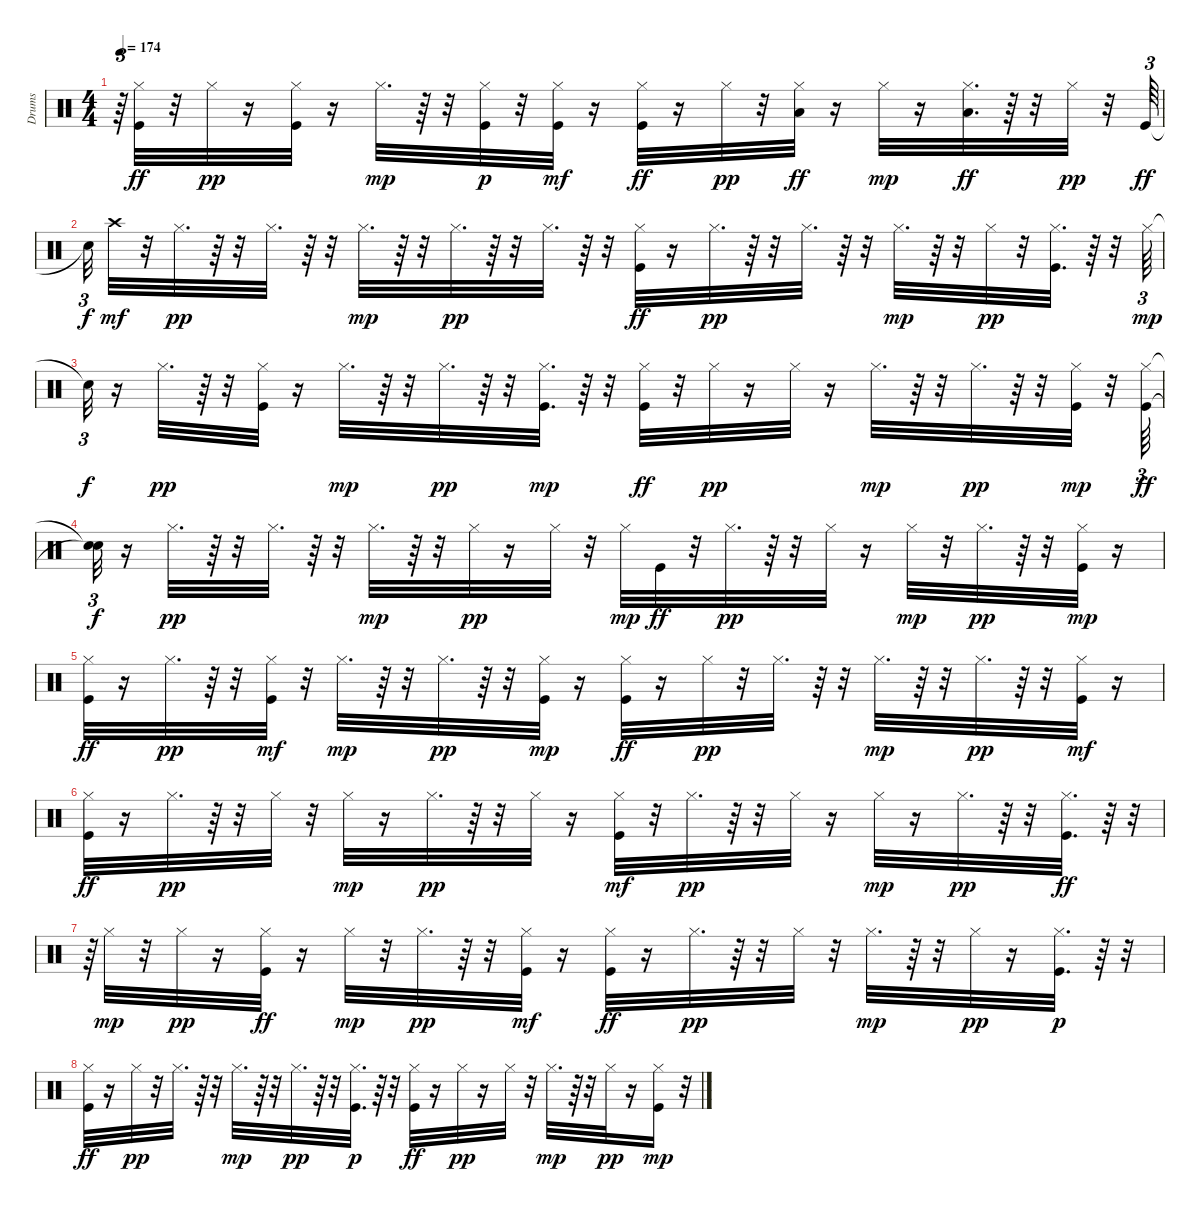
\track ("Drums" "Drums") {instrument percussion}
\staff {score}
\articulation defaults
\ts (4 4)
\tempo 174
\clef neutral
\ks c
r.64{tu (3 2) dy mp} ("Hi-Hat (closed)" "Kick (hit)").32{dy ff} r.32 "Hi-Hat (closed)".32{dy pp} r.16 ("Hi-Hat (closed)" "Kick (hit)").32 r.16 "Hi-Hat (closed)".32{d dy mp} r.64 r.32 ("Hi-Hat (closed)" "Kick (hit)").32{dy p} r.32 ("Hi-Hat (closed)" "Kick (hit)").32{dy mf} r.16 ("Hi-Hat (closed)" "Kick (hit)").32{dy ff} r.16 "Hi-Hat (closed)".32{dy pp} r.32 ("Hi-Hat (closed)" "Low Tom (hit)").32{dy ff} r.16 "Hi-Hat (closed)".32{dy mp} r.16 ("Hi-Hat (closed)" "Low Tom (hit)").32{d dy ff} r.64 r.32 "Hi-Hat (closed)".32{dy pp} r.32 "Kick (hit)".64{tu (3 2) dy ff} |
"Snare (hit)"{t}.32{tu (3 2) dy f} "Crash high (hit)".32{dy mf} r.32 "Hi-Hat (closed)".32{d dy pp} r.64 r.32 "Hi-Hat (closed)".32{d} r.64 r.32 "Hi-Hat (closed)".32{d dy mp} r.64 r.32 "Hi-Hat (closed)".32{d dy pp} r.64 r.32 "Hi-Hat (closed)".32{d} r.64 r.32 ("Hi-Hat (closed)" "Kick (hit)").32{dy ff} r.16 "Hi-Hat (closed)".32{d dy pp} r.64 r.32 "Hi-Hat (closed)".32{d} r.64 r.32 "Hi-Hat (closed)".32{d dy mp} r.64 r.32 "Hi-Hat (closed)".32{dy pp} r.32 ("Hi-Hat (closed)" "Kick (hit)").32{d} r.64 r.32 "Hi-Hat (closed)".64{tu (3 2) dy mp} |
"Snare (hit)"{t}.32{tu (3 2) dy f} r.16 "Hi-Hat (closed)".32{d dy pp} r.64 r.32 ("Hi-Hat (closed)" "Kick (hit)").32 r.16 "Hi-Hat (closed)".32{d dy mp} r.64 r.32 "Hi-Hat (closed)".32{d dy pp} r.64 r.32 ("Hi-Hat (closed)" "Kick (hit)").32{d dy mp} r.64 r.32 ("Hi-Hat (closed)" "Kick (hit)").32{dy ff} r.32 "Hi-Hat (closed)".32{dy pp} r.16 "Hi-Hat (closed)".32 r.16 "Hi-Hat (closed)".32{d dy mp} r.64 r.32 "Hi-Hat (closed)".32{d dy pp} r.64 r.32 ("Hi-Hat (closed)" "Kick (hit)").32{dy mp} r.32 ("Hi-Hat (closed)" "Kick (hit)").64{tu (3 2) dy ff} |
("Snare (hit)"{t} "Snare (hit)"{t}).32{tu (3 2) dy f} r.16 "Hi-Hat (closed)".32{d dy pp} r.64 r.32 "Hi-Hat (closed)".32{d} r.64 r.32 "Hi-Hat (closed)".32{d dy mp} r.64 r.32 "Hi-Hat (closed)".32{dy pp} r.16 "Hi-Hat (closed)".32 r.32 "Hi-Hat (closed)".32{dy mp} "Kick (hit)".32{dy ff} r.32 "Hi-Hat (closed)".32{d dy pp} r.64 r.32 "Hi-Hat (closed)".32 r.16 "Hi-Hat (closed)".32{dy mp} r.32 "Hi-Hat (closed)".32{d dy pp} r.64 r.32 ("Hi-Hat (closed)" "Kick (hit)").32{dy mp} r.16 |
("Hi-Hat (closed)" "Kick (hit)").32{dy ff} r.16 "Hi-Hat (closed)".32{d dy pp} r.64 r.32 ("Hi-Hat (closed)" "Kick (hit)").32{dy mf} r.32 "Hi-Hat (closed)".32{d dy mp} r.64 r.32 "Hi-Hat (closed)".32{d dy pp} r.64 r.32 ("Hi-Hat (closed)" "Kick (hit)").32{dy mp} r.16 ("Hi-Hat (closed)" "Kick (hit)").32{dy ff} r.16 "Hi-Hat (closed)".32{dy pp} r.32 "Hi-Hat (closed)".32{d} r.64 r.32 "Hi-Hat (closed)".32{d dy mp} r.64 r.32 "Hi-Hat (closed)".32{d dy pp} r.64 r.32 ("Hi-Hat (closed)" "Kick (hit)").32{dy mf} r.16 |
("Hi-Hat (closed)" "Kick (hit)").32{dy ff} r.16 "Hi-Hat (closed)".32{d dy pp} r.64 r.32 "Hi-Hat (closed)".32 r.32 "Hi-Hat (closed)".32{dy mp} r.16 "Hi-Hat (closed)".32{d dy pp} r.64 r.32 "Hi-Hat (closed)".32 r.16 ("Hi-Hat (closed)" "Kick (hit)").32{dy mf} r.32 "Hi-Hat (closed)".32{d dy pp} r.64 r.32 "Hi-Hat (closed)".32 r.16 "Hi-Hat (closed)".32{dy mp} r.16 "Hi-Hat (closed)".32{d dy pp} r.64 r.32 ("Hi-Hat (closed)" "Kick (hit)").32{d dy ff} r.64 r.32{tu (3 2)} |
r.64{tu (3 2)} "Hi-Hat (closed)".32{dy mp} r.32 "Hi-Hat (closed)".32{dy pp} r.16 ("Hi-Hat (closed)" "Kick (hit)").32{dy ff} r.16 "Hi-Hat (closed)".32{dy mp} r.32 "Hi-Hat (closed)".32{d dy pp} r.64 r.32 ("Hi-Hat (closed)" "Kick (hit)").32{dy mf} r.16 ("Hi-Hat (closed)" "Kick (hit)").32{dy ff} r.16 "Hi-Hat (closed)".32{d dy pp} r.64 r.32 "Hi-Hat (closed)".32 r.32 "Hi-Hat (closed)".32{d dy mp} r.64 r.32 "Hi-Hat (closed)".32{dy pp} r.16 ("Hi-Hat (closed)" "Kick (hit)").32{d dy p} r.64 r.32 |
("Hi-Hat (closed)" "Kick (hit)").32{dy ff} r.16 "Hi-Hat (closed)".32{dy pp} r.32 "Hi-Hat (closed)".32{d} r.64 r.32 "Hi-Hat (closed)".32{d dy mp} r.64 r.32 "Hi-Hat (closed)".32{d dy pp} r.64 r.32 ("Hi-Hat (closed)" "Kick (hit)").32{d dy p} r.64 r.32 ("Hi-Hat (closed)" "Kick (hit)").32{dy ff} r.16 "Hi-Hat (closed)".32{dy pp} r.16 "Hi-Hat (closed)".32 r.32 "Hi-Hat (closed)".32{d dy mp} r.64 r.32 "Hi-Hat (closed)".32{dy pp} r.16 ("Hi-Hat (closed)" "Kick (hit)").16{dy mp} r.32{tu (3 2)}
